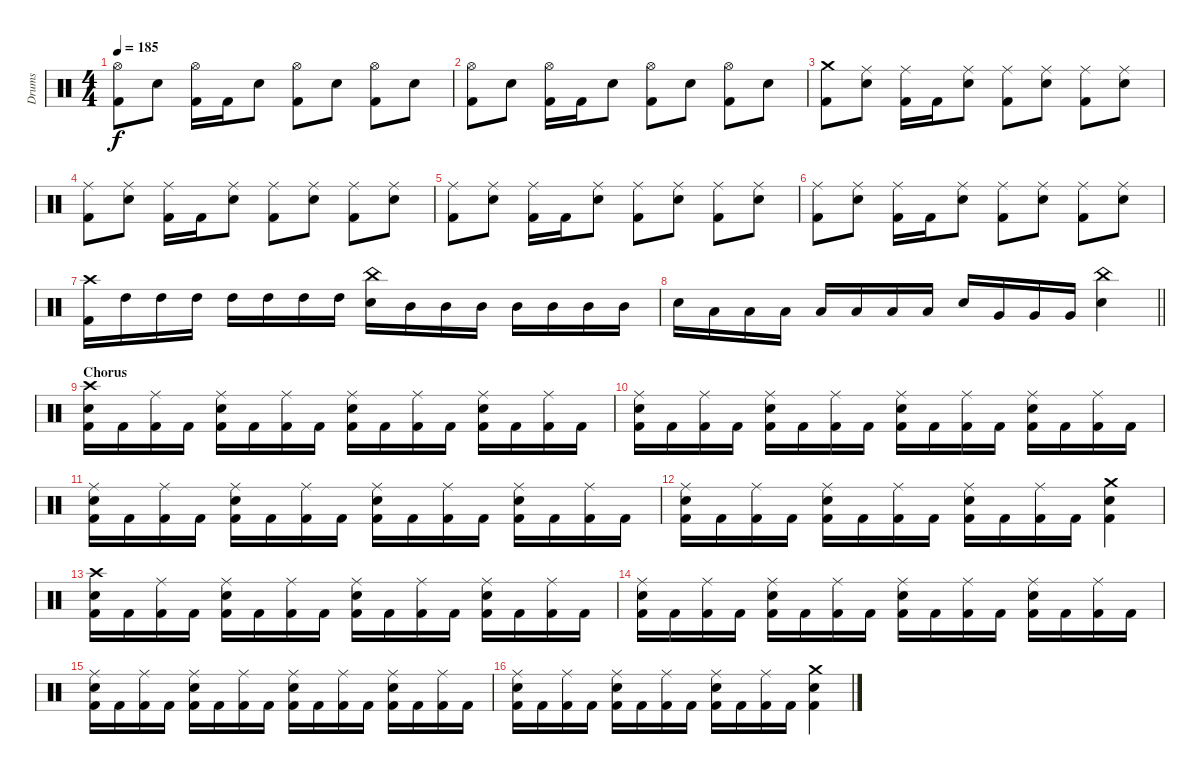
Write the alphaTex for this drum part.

\track ("Drums" "Drums") {instrument percussion}
\staff {score}
\articulation defaults
\ts (4 4)
\tempo 185
\clef neutral
\ks c
("Hi-Hat (open)" "Kick (hit) 2").8{dy f} "Electric Snare (hit)".8 ("Hi-Hat (open)" "Kick (hit) 2").16 "Kick (hit) 2".16 "Electric Snare (hit)".8 ("Hi-Hat (open)" "Kick (hit) 2").8 "Electric Snare (hit)".8 ("Hi-Hat (open)" "Kick (hit) 2").8 "Electric Snare (hit)".8 |
("Hi-Hat (open)" "Kick (hit) 2").8 "Electric Snare (hit)".8 ("Hi-Hat (open)" "Kick (hit) 2").16 "Kick (hit) 2".16 "Electric Snare (hit)".8 ("Hi-Hat (open)" "Kick (hit) 2").8 "Electric Snare (hit)".8 ("Hi-Hat (open)" "Kick (hit) 2").8 "Electric Snare (hit)".8 |
("Crash medium (hit)" "Kick (hit) 2").8 ("Ride (middle)" "Electric Snare (hit)").8 ("Ride (middle)" "Kick (hit) 2").16 "Kick (hit) 2".16 ("Ride (middle)" "Electric Snare (hit)").8 ("Ride (middle)" "Kick (hit) 2").8 ("Ride (middle)" "Electric Snare (hit)").8 ("Ride (middle)" "Kick (hit) 2").8 ("Ride (middle)" "Electric Snare (hit)").8 |
("Ride (middle)" "Kick (hit) 2").8 ("Ride (middle)" "Electric Snare (hit)").8 ("Ride (middle)" "Kick (hit) 2").16 "Kick (hit) 2".16 ("Ride (middle)" "Electric Snare (hit)").8 ("Ride (middle)" "Kick (hit) 2").8 ("Ride (middle)" "Electric Snare (hit)").8 ("Ride (middle)" "Kick (hit) 2").8 ("Ride (middle)" "Electric Snare (hit)").8 |
("Ride (middle)" "Kick (hit) 2").8 ("Ride (middle)" "Electric Snare (hit)").8 ("Ride (middle)" "Kick (hit) 2").16 "Kick (hit) 2".16 ("Ride (middle)" "Electric Snare (hit)").8 ("Ride (middle)" "Kick (hit) 2").8 ("Ride (middle)" "Electric Snare (hit)").8 ("Ride (middle)" "Kick (hit) 2").8 ("Ride (middle)" "Electric Snare (hit)").8 |
("Ride (middle)" "Kick (hit) 2").8 ("Ride (middle)" "Electric Snare (hit)").8 ("Ride (middle)" "Kick (hit) 2").16 "Kick (hit) 2".16 ("Ride (middle)" "Electric Snare (hit)").8 ("Ride (middle)" "Kick (hit) 2").8 ("Ride (middle)" "Electric Snare (hit)").8 ("Ride (middle)" "Kick (hit) 2").8 ("Ride (middle)" "Electric Snare (hit)").8 |
("Crash high (hit)" "Kick (hit) 2").16 "High Tom (hit)".16 "High Tom (hit)".16 "High Tom (hit)".16 "High Tom (hit)".16 "High Tom (hit)".16 "High Tom (hit)".16 "High Tom (hit)".16 ("China (hit)" "Electric Snare (hit)").16 "Mid Tom (hit)".16 "Mid Tom (hit)".16 "Mid Tom (hit)".16 "Mid Tom (hit)".16 "Mid Tom (hit)".16 "Mid Tom (hit)".16 "Mid Tom (hit)".16 |
\barLineRight lightlight "Electric Snare (hit)".16 "Low Tom (hit)".16 "Low Tom (hit)".16 "Low Tom (hit)".16 "Low Tom (hit)".16 "Low Tom (hit)".16 "Low Tom (hit)".16 "Low Tom (hit)".16 "Electric Snare (hit)".16 "Very Low Tom (hit)".16 "Very Low Tom (hit)".16 "Very Low Tom (hit)".16
("China (hit)" "Electric Snare (hit)").4 |
\section ("" "Chorus")
("Crash high (hit)" "Electric Snare (hit)" "Kick (hit) 2").16 "Kick (hit) 2".16 ("Ride (middle)" "Kick (hit) 2").16 "Kick (hit) 2".16 ("Ride (middle)" "Electric Snare (hit)" "Kick (hit) 2").16 "Kick (hit) 2".16 ("Ride (middle)" "Kick (hit) 2").16 "Kick (hit) 2".16 ("Ride (middle)" "Electric Snare (hit)" "Kick (hit) 2").16 "Kick (hit) 2".16 ("Ride (middle)" "Kick (hit) 2").16 "Kick (hit) 2".16 ("Ride (middle)" "Electric Snare (hit)" "Kick (hit) 2").16 "Kick (hit) 2".16 ("Ride (middle)" "Kick (hit) 2").16 "Kick (hit) 2".16 |
("Ride (middle)" "Electric Snare (hit)" "Kick (hit) 2").16 "Kick (hit) 2".16 ("Ride (middle)" "Kick (hit) 2").16 "Kick (hit) 2".16 ("Ride (middle)" "Electric Snare (hit)" "Kick (hit) 2").16 "Kick (hit) 2".16 ("Ride (middle)" "Kick (hit) 2").16 "Kick (hit) 2".16 ("Ride (middle)" "Electric Snare (hit)" "Kick (hit) 2").16 "Kick (hit) 2".16 ("Ride (middle)" "Kick (hit) 2").16 "Kick (hit) 2".16 ("Ride (middle)" "Electric Snare (hit)" "Kick (hit) 2").16 "Kick (hit) 2".16 ("Ride (middle)" "Kick (hit) 2").16 "Kick (hit) 2".16 |
("Ride (middle)" "Electric Snare (hit)" "Kick (hit) 2").16 "Kick (hit) 2".16 ("Ride (middle)" "Kick (hit) 2").16 "Kick (hit) 2".16 ("Ride (middle)" "Electric Snare (hit)" "Kick (hit) 2").16 "Kick (hit) 2".16 ("Ride (middle)" "Kick (hit) 2").16 "Kick (hit) 2".16 ("Ride (middle)" "Electric Snare (hit)" "Kick (hit) 2").16 "Kick (hit) 2".16 ("Ride (middle)" "Kick (hit) 2").16 "Kick (hit) 2".16 ("Ride (middle)" "Electric Snare (hit)" "Kick (hit) 2").16 "Kick (hit) 2".16 ("Ride (middle)" "Kick (hit) 2").16 "Kick (hit) 2".16 |
("Ride (middle)" "Electric Snare (hit)" "Kick (hit) 2").16 "Kick (hit) 2".16 ("Ride (middle)" "Kick (hit) 2").16 "Kick (hit) 2".16 ("Ride (middle)" "Electric Snare (hit)" "Kick (hit) 2").16 "Kick (hit) 2".16 ("Ride (middle)" "Kick (hit) 2").16 "Kick (hit) 2".16 ("Ride (middle)" "Electric Snare (hit)" "Kick (hit) 2").16 "Kick (hit) 2".16 ("Ride (middle)" "Kick (hit) 2").16 "Kick (hit) 2".16 ("Crash medium (hit)" "Electric Snare (hit)" "Kick (hit) 2").4 |
("Crash high (hit)" "Electric Snare (hit)" "Kick (hit) 2").16 "Kick (hit) 2".16 ("Ride (middle)" "Kick (hit) 2").16 "Kick (hit) 2".16 ("Ride (middle)" "Electric Snare (hit)" "Kick (hit) 2").16 "Kick (hit) 2".16 ("Ride (middle)" "Kick (hit) 2").16 "Kick (hit) 2".16 ("Ride (middle)" "Electric Snare (hit)" "Kick (hit) 2").16 "Kick (hit) 2".16 ("Ride (middle)" "Kick (hit) 2").16 "Kick (hit) 2".16 ("Ride (middle)" "Electric Snare (hit)" "Kick (hit) 2").16 "Kick (hit) 2".16 ("Ride (middle)" "Kick (hit) 2").16 "Kick (hit) 2".16 |
("Ride (middle)" "Electric Snare (hit)" "Kick (hit) 2").16 "Kick (hit) 2".16 ("Ride (middle)" "Kick (hit) 2").16 "Kick (hit) 2".16 ("Ride (middle)" "Electric Snare (hit)" "Kick (hit) 2").16 "Kick (hit) 2".16 ("Ride (middle)" "Kick (hit) 2").16 "Kick (hit) 2".16 ("Ride (middle)" "Electric Snare (hit)" "Kick (hit) 2").16 "Kick (hit) 2".16 ("Ride (middle)" "Kick (hit) 2").16 "Kick (hit) 2".16 ("Ride (middle)" "Electric Snare (hit)" "Kick (hit) 2").16 "Kick (hit) 2".16 ("Ride (middle)" "Kick (hit) 2").16 "Kick (hit) 2".16 |
("Ride (middle)" "Electric Snare (hit)" "Kick (hit) 2").16 "Kick (hit) 2".16 ("Ride (middle)" "Kick (hit) 2").16 "Kick (hit) 2".16 ("Ride (middle)" "Electric Snare (hit)" "Kick (hit) 2").16 "Kick (hit) 2".16 ("Ride (middle)" "Kick (hit) 2").16 "Kick (hit) 2".16 ("Ride (middle)" "Electric Snare (hit)" "Kick (hit) 2").16 "Kick (hit) 2".16 ("Ride (middle)" "Kick (hit) 2").16 "Kick (hit) 2".16 ("Ride (middle)" "Electric Snare (hit)" "Kick (hit) 2").16 "Kick (hit) 2".16 ("Ride (middle)" "Kick (hit) 2").16 "Kick (hit) 2".16 |
("Ride (middle)" "Electric Snare (hit)" "Kick (hit) 2").16 "Kick (hit) 2".16 ("Ride (middle)" "Kick (hit) 2").16 "Kick (hit) 2".16 ("Ride (middle)" "Electric Snare (hit)" "Kick (hit) 2").16 "Kick (hit) 2".16 ("Ride (middle)" "Kick (hit) 2").16 "Kick (hit) 2".16 ("Ride (middle)" "Electric Snare (hit)" "Kick (hit) 2").16 "Kick (hit) 2".16 ("Ride (middle)" "Kick (hit) 2").16 "Kick (hit) 2".16 ("Crash medium (hit)" "Electric Snare (hit)" "Kick (hit) 2").4
